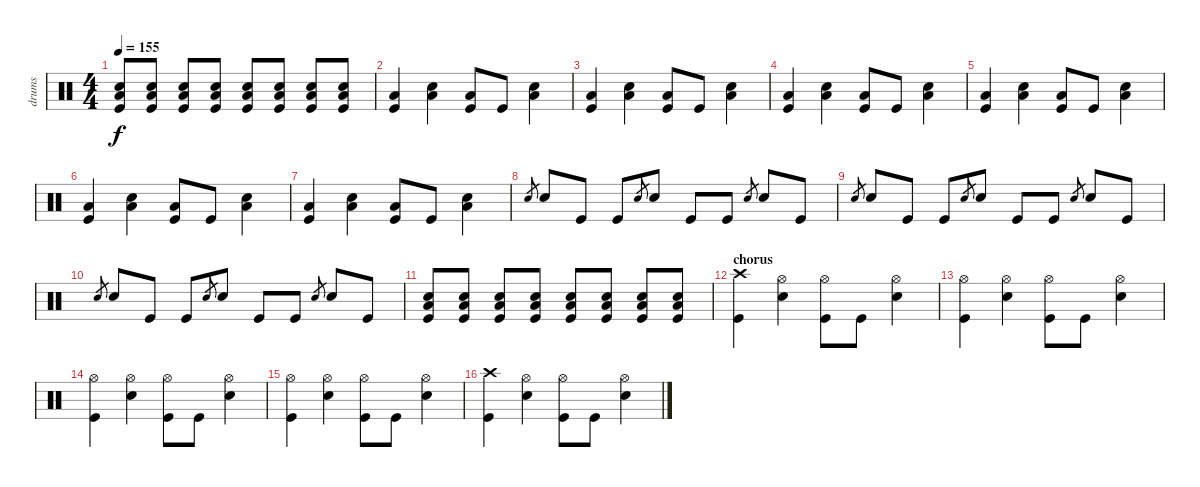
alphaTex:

\track ("drums" "drums") {instrument percussion}
\staff {score}
\articulation defaults
\ts (4 4)
\tempo 155
\clef neutral
\ks c
("Snare (hit) 2" "Low Floor Tom (hit)" "Kick (hit)").8{dy f} ("Snare (hit) 2" "Low Floor Tom (hit)" "Kick (hit)").8 ("Snare (hit) 2" "Low Floor Tom (hit)" "Kick (hit)").8 ("Snare (hit) 2" "Low Floor Tom (hit)" "Kick (hit)").8 ("Snare (hit) 2" "Low Floor Tom (hit)" "Kick (hit)").8 ("Snare (hit) 2" "Low Floor Tom (hit)" "Kick (hit)").8 ("Snare (hit) 2" "Low Floor Tom (hit)" "Kick (hit)").8 ("Snare (hit) 2" "Low Floor Tom (hit)" "Kick (hit)").8 |
("Low Floor Tom (hit)" "Kick (hit)").4 ("Low Floor Tom (hit)" "Snare (hit) 2").4 ("Low Floor Tom (hit)" "Kick (hit)").8 "Kick (hit)".8 ("Low Floor Tom (hit)" "Snare (hit) 2").4 |
("Low Floor Tom (hit)" "Kick (hit)").4 ("Low Floor Tom (hit)" "Snare (hit) 2").4 ("Low Floor Tom (hit)" "Kick (hit)").8 "Kick (hit)".8 ("Low Floor Tom (hit)" "Snare (hit) 2").4 |
("Low Floor Tom (hit)" "Kick (hit)").4 ("Low Floor Tom (hit)" "Snare (hit) 2").4 ("Low Floor Tom (hit)" "Kick (hit)").8 "Kick (hit)".8 ("Low Floor Tom (hit)" "Snare (hit) 2").4 |
("Low Floor Tom (hit)" "Kick (hit)").4 ("Low Floor Tom (hit)" "Snare (hit) 2").4 ("Low Floor Tom (hit)" "Kick (hit)").8 "Kick (hit)".8 ("Low Floor Tom (hit)" "Snare (hit) 2").4 |
("Low Floor Tom (hit)" "Kick (hit)").4 ("Low Floor Tom (hit)" "Snare (hit) 2").4 ("Low Floor Tom (hit)" "Kick (hit)").8 "Kick (hit)".8 ("Low Floor Tom (hit)" "Snare (hit) 2").4 |
("Low Floor Tom (hit)" "Kick (hit)").4 ("Low Floor Tom (hit)" "Snare (hit) 2").4 ("Low Floor Tom (hit)" "Kick (hit)").8 "Kick (hit)".8 ("Low Floor Tom (hit)" "Snare (hit) 2").4 |
"Snare (hit) 2".8{gr} "Snare (hit) 2".8 "Kick (hit)".8 "Kick (hit)".8 "Snare (hit) 2".8{gr} "Snare (hit) 2".8 "Kick (hit)".8 "Kick (hit)".8 "Snare (hit) 2".8{gr} "Snare (hit) 2".8 "Kick (hit)".8 |
"Snare (hit) 2".8{gr} "Snare (hit) 2".8 "Kick (hit)".8 "Kick (hit)".8 "Snare (hit) 2".8{gr} "Snare (hit) 2".8 "Kick (hit)".8 "Kick (hit)".8 "Snare (hit) 2".8{gr} "Snare (hit) 2".8 "Kick (hit)".8 |
"Snare (hit) 2".8{gr} "Snare (hit) 2".8 "Kick (hit)".8 "Kick (hit)".8 "Snare (hit) 2".8{gr} "Snare (hit) 2".8 "Kick (hit)".8 "Kick (hit)".8 "Snare (hit) 2".8{gr} "Snare (hit) 2".8 "Kick (hit)".8 |
("Snare (hit) 2" "Low Floor Tom (hit)" "Kick (hit)").8 ("Snare (hit) 2" "Low Floor Tom (hit)" "Kick (hit)").8 ("Snare (hit) 2" "Low Floor Tom (hit)" "Kick (hit)").8 ("Snare (hit) 2" "Low Floor Tom (hit)" "Kick (hit)").8 ("Snare (hit) 2" "Low Floor Tom (hit)" "Kick (hit)").8 ("Snare (hit) 2" "Low Floor Tom (hit)" "Kick (hit)").8 ("Snare (hit) 2" "Low Floor Tom (hit)" "Kick (hit)").8 ("Snare (hit) 2" "Low Floor Tom (hit)" "Kick (hit)").8 |
\section ("" "chorus")
("Crash high (hit)" "Kick (hit)").4 ("Hi-Hat (open)" "Snare (hit) 2").4 ("Hi-Hat (open)" "Kick (hit)").8 "Kick (hit)".8 ("Hi-Hat (open)" "Snare (hit) 2").4 |
("Hi-Hat (open)" "Kick (hit)").4 ("Hi-Hat (open)" "Snare (hit) 2").4 ("Hi-Hat (open)" "Kick (hit)").8 "Kick (hit)".8 ("Hi-Hat (open)" "Snare (hit) 2").4 |
("Hi-Hat (open)" "Kick (hit)").4 ("Hi-Hat (open)" "Snare (hit) 2").4 ("Hi-Hat (open)" "Kick (hit)").8 "Kick (hit)".8 ("Hi-Hat (open)" "Snare (hit) 2").4 |
("Hi-Hat (open)" "Kick (hit)").4 ("Hi-Hat (open)" "Snare (hit) 2").4 ("Hi-Hat (open)" "Kick (hit)").8 "Kick (hit)".8 ("Hi-Hat (open)" "Snare (hit) 2").4 |
("Crash high (hit)" "Kick (hit)").4 ("Hi-Hat (open)" "Snare (hit) 2").4 ("Hi-Hat (open)" "Kick (hit)").8 "Kick (hit)".8 ("Hi-Hat (open)" "Snare (hit) 2").4
